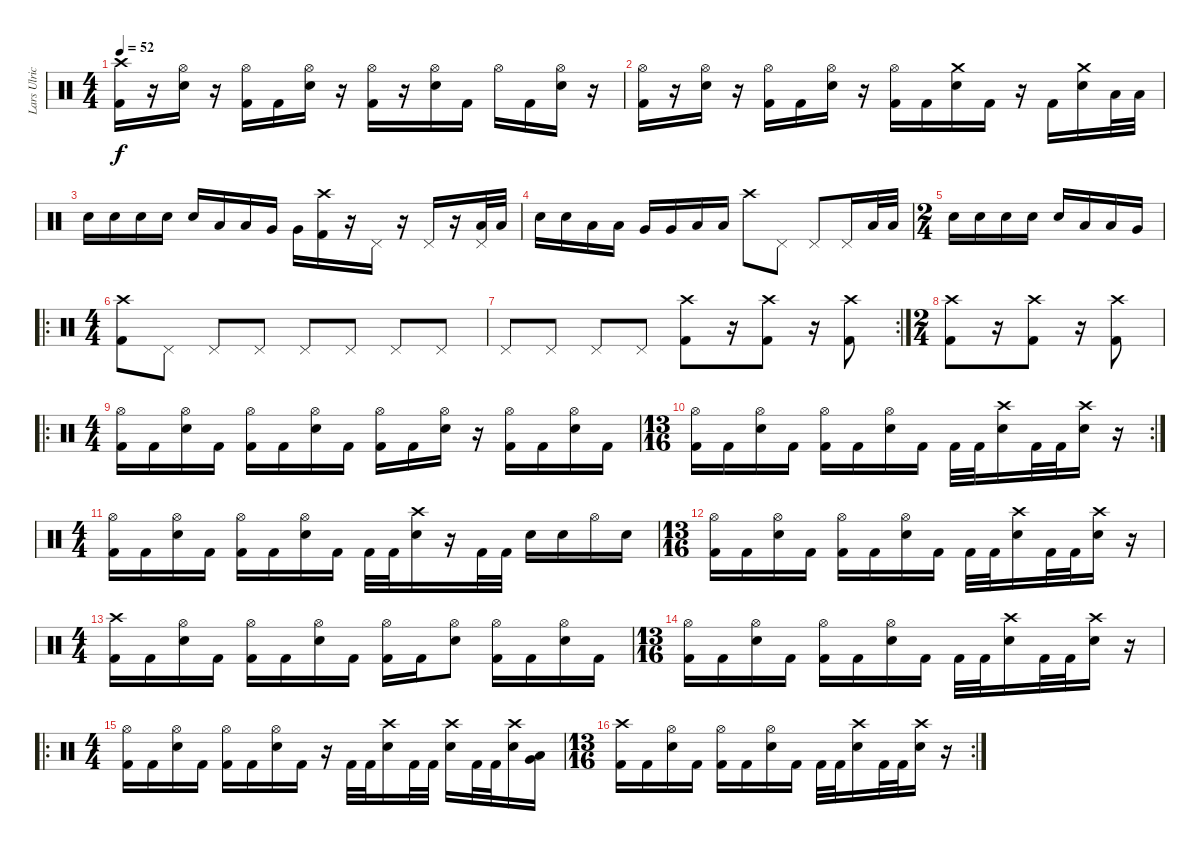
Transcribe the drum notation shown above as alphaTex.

\track ("Lars Ulrich" "Lars Ulric") {instrument percussion}
\staff {score}
\articulation defaults
\ts (4 4)
\tempo 52
\clef neutral
\ks c
("Crash high (hit)" "Kick (hit) 2").16{dy f} r.16 ("Hi-Hat (open)" "Snare (hit) 2").16 r.16 ("Hi-Hat (open)" "Kick (hit) 2").16 "Kick (hit) 2".16 ("Hi-Hat (open)" "Snare (hit) 2").16 r.16 ("Hi-Hat (open)" "Kick (hit) 2").16 r.16 ("Hi-Hat (open)" "Snare (hit) 2").16 "Kick (hit) 2".16 "Hi-Hat (open)".16 "Kick (hit) 2".16 ("Hi-Hat (open)" "Snare (hit) 2").16 r.16 |
("Hi-Hat (open)" "Kick (hit) 2").16 r.16 ("Hi-Hat (open)" "Snare (hit) 2").16 r.16 ("Hi-Hat (open)" "Kick (hit) 2").16 "Kick (hit) 2".16 ("Hi-Hat (open)" "Snare (hit) 2").16 r.16 ("Hi-Hat (open)" "Kick (hit) 2").16 "Kick (hit) 2".16 ("Crash medium (hit)" "Snare (hit) 2").16 "Kick (hit) 2".16 r.16 "Kick (hit) 2".16 ("Crash medium (hit)" "Snare (hit) 2").16 "Low Tom (hit)".32 "Low Tom (hit)".32 |
"Snare (hit) 2".16 "Snare (hit) 2".16 "Snare (hit) 2".16 "Snare (hit) 2".16 "Snare (hit) 2".16 "Low Tom (hit)".16 "Low Tom (hit)".16 "Very Low Tom (hit)".16 "Very Low Tom (hit)".16 ("Crash high (hit)" "Kick (hit) 2").16 r.16 "Pedal Hi-Hat (hit)".16 r.16 "Pedal Hi-Hat (hit)".16 r.16 ("Pedal Hi-Hat (hit)" "Low Tom (hit)").32 "Low Tom (hit)".32 |
"Snare (hit) 2".16 "Snare (hit) 2".16 "Low Tom (hit)".16 "Low Tom (hit)".16 "Very Low Tom (hit)".16 "Very Low Tom (hit)".16 "Low Floor Tom (hit)".16 "Low Floor Tom (hit)".16 "Crash high (hit)".8 "Pedal Hi-Hat (hit)".8 "Pedal Hi-Hat (hit)".8 "Pedal Hi-Hat (hit)".16 "Low Tom (hit)".32 "Low Tom (hit)".32 |
\ts (2 4)
"Snare (hit) 2".16 "Snare (hit) 2".16 "Snare (hit) 2".16 "Snare (hit) 2".16 "Snare (hit) 2".16 "Low Tom (hit)".16 "Low Tom (hit)".16 "Very Low Tom (hit)".16 |
\ro
\ts (4 4)
("Crash high (hit)" "Kick (hit) 2").8 "Pedal Hi-Hat (hit)".8 "Pedal Hi-Hat (hit)".8 "Pedal Hi-Hat (hit)".8 "Pedal Hi-Hat (hit)".8 "Pedal Hi-Hat (hit)".8 "Pedal Hi-Hat (hit)".8 "Pedal Hi-Hat (hit)".8 |
\rc 2 "Pedal Hi-Hat (hit)".8 "Pedal Hi-Hat (hit)".8 "Pedal Hi-Hat (hit)".8 "Pedal Hi-Hat (hit)".8
("Crash high (hit)" "Kick (hit) 2").8 r.16 ("Crash high (hit)" "Kick (hit) 2").8 r.16 ("Crash high (hit)" "Kick (hit) 2").8 |
\ts (2 4)
("Crash high (hit)" "Kick (hit) 2").8 r.16 ("Crash high (hit)" "Kick (hit) 2").8 r.16 ("Crash high (hit)" "Kick (hit) 2").8 |
\ro
\ts (4 4)
("Hi-Hat (open)" "Kick (hit) 2").16 "Kick (hit) 2".16 ("Hi-Hat (open)" "Snare (hit) 2").16 "Kick (hit) 2".16 ("Hi-Hat (open)" "Kick (hit) 2").16 "Kick (hit) 2".16 ("Hi-Hat (open)" "Snare (hit) 2").16 "Kick (hit) 2".16 ("Hi-Hat (open)" "Kick (hit) 2").16 "Kick (hit) 2".16 ("Hi-Hat (open)" "Snare (hit) 2").16 r.16 ("Hi-Hat (open)" "Kick (hit) 2").16 "Kick (hit) 2".16 ("Hi-Hat (open)" "Snare (hit) 2").16 "Kick (hit) 2".16 |
\rc 2
\ts (13 16)
("Hi-Hat (open)" "Kick (hit) 2").16 "Kick (hit) 2".16 ("Hi-Hat (open)" "Snare (hit) 2").16 "Kick (hit) 2".16 ("Hi-Hat (open)" "Kick (hit) 2").16 "Kick (hit) 2".16 ("Hi-Hat (open)" "Snare (hit) 2").16 "Kick (hit) 2".16 "Kick (hit) 2".32 "Kick (hit) 2".32 ("Crash high (hit)" "Snare (hit) 2").16 "Kick (hit) 2".32 "Kick (hit) 2".32 ("Crash high (hit)" "Snare (hit) 2").16 r.16 |
\ts (4 4)
("Hi-Hat (open)" "Kick (hit) 2").16 "Kick (hit) 2".16 ("Hi-Hat (open)" "Snare (hit) 2").16 "Kick (hit) 2".16 ("Hi-Hat (open)" "Kick (hit) 2").16 "Kick (hit) 2".16 ("Hi-Hat (open)" "Snare (hit) 2").16 "Kick (hit) 2".16 "Kick (hit) 2".32 "Kick (hit) 2".32 ("Crash high (hit)" "Snare (hit) 2").16 r.16 "Kick (hit) 2".32 "Kick (hit) 2".32 "Snare (hit) 2".16 "Snare (hit) 2".16 "Hi-Hat (open)".16 "Snare (hit) 2".16 |
\ts (13 16)
("Hi-Hat (open)" "Kick (hit) 2").16 "Kick (hit) 2".16 ("Hi-Hat (open)" "Snare (hit) 2").16 "Kick (hit) 2".16 ("Hi-Hat (open)" "Kick (hit) 2").16 "Kick (hit) 2".16 ("Hi-Hat (open)" "Snare (hit) 2").16 "Kick (hit) 2".16 "Kick (hit) 2".32 "Kick (hit) 2".32 ("Crash high (hit)" "Snare (hit) 2").16 "Kick (hit) 2".32 "Kick (hit) 2".32 ("Crash high (hit)" "Snare (hit) 2").16 r.16 |
\ts (4 4)
("Crash high (hit)" "Kick (hit) 2").16 "Kick (hit) 2".16 ("Hi-Hat (open)" "Snare (hit) 2").16 "Kick (hit) 2".16 ("Hi-Hat (open)" "Kick (hit) 2").16 "Kick (hit) 2".16 ("Hi-Hat (open)" "Snare (hit) 2").16 "Kick (hit) 2".16 ("Hi-Hat (open)" "Kick (hit) 2").16 "Kick (hit) 2".16 ("Hi-Hat (open)" "Snare (hit) 2").8 ("Hi-Hat (open)" "Kick (hit) 2").16 "Kick (hit) 2".16 ("Hi-Hat (open)" "Snare (hit) 2").16 "Kick (hit) 2".16 |
\ts (13 16)
("Hi-Hat (open)" "Kick (hit) 2").16 "Kick (hit) 2".16 ("Hi-Hat (open)" "Snare (hit) 2").16 "Kick (hit) 2".16 ("Hi-Hat (open)" "Kick (hit) 2").16 "Kick (hit) 2".16 ("Hi-Hat (open)" "Snare (hit) 2").16 "Kick (hit) 2".16 "Kick (hit) 2".32 "Kick (hit) 2".32 ("Crash high (hit)" "Snare (hit) 2").16 "Kick (hit) 2".32 "Kick (hit) 2".32 ("Crash high (hit)" "Snare (hit) 2").16 r.16 |
\ro
\ts (4 4)
("Hi-Hat (open)" "Kick (hit) 2").16 "Kick (hit) 2".16 ("Hi-Hat (open)" "Snare (hit) 2").16 "Kick (hit) 2".16 ("Hi-Hat (open)" "Kick (hit) 2").16 "Kick (hit) 2".16 ("Hi-Hat (open)" "Snare (hit) 2").16 "Kick (hit) 2".16 r.16 "Kick (hit) 2".32 "Kick (hit) 2".32 ("Crash high (hit)" "Snare (hit) 2").16 "Kick (hit) 2".32 "Kick (hit) 2".32 ("Crash high (hit)" "Snare (hit) 2").16 "Kick (hit) 2".32 "Kick (hit) 2".32 ("Crash high (hit)" "Snare (hit) 2").16 ("Very Low Tom (hit)" "Low Tom (hit)").16 |
\rc 2
\ts (13 16)
("Crash high (hit)" "Kick (hit) 2").16 "Kick (hit) 2".16 ("Hi-Hat (open)" "Snare (hit) 2").16 "Kick (hit) 2".16 ("Hi-Hat (open)" "Kick (hit) 2").16 "Kick (hit) 2".16 ("Hi-Hat (open)" "Snare (hit) 2").16 "Kick (hit) 2".16 "Kick (hit) 2".32 "Kick (hit) 2".32 ("Crash high (hit)" "Snare (hit) 2").16 "Kick (hit) 2".32 "Kick (hit) 2".32 ("Crash high (hit)" "Snare (hit) 2").16 r.16
